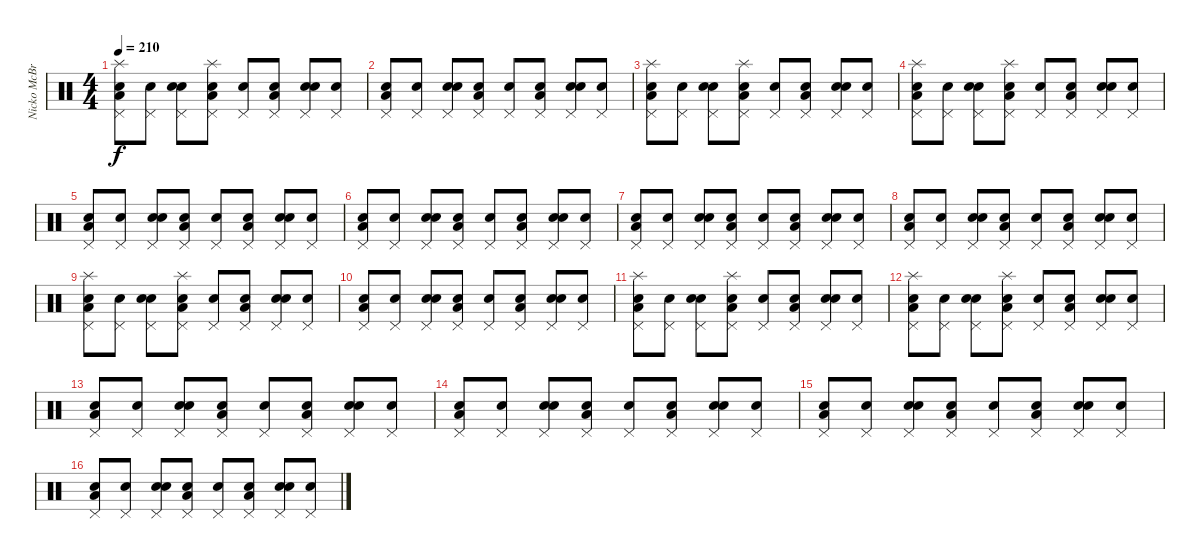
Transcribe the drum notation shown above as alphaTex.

\track ("Nicko McBrain" "Nicko McBr") {instrument percussion}
\staff {score}
\articulation defaults
\ts (4 4)
\tempo 210
\clef neutral
\ks c
("Snare (hit)" "Low Floor Tom (hit)" "Pedal Hi-Hat (hit)" "Splash (hit)").8{dy f} ("Snare (hit)" "Pedal Hi-Hat (hit)").8 ("Snare (hit)" "Electric Snare (hit)" "Pedal Hi-Hat (hit)").8 ("Snare (hit)" "Low Floor Tom (hit)" "Pedal Hi-Hat (hit)" "Splash (hit)").8 ("Snare (hit)" "Pedal Hi-Hat (hit)").8 ("Snare (hit)" "Low Floor Tom (hit)" "Pedal Hi-Hat (hit)").8 ("Snare (hit)" "Electric Snare (hit)" "Pedal Hi-Hat (hit)").8 ("Snare (hit)" "Pedal Hi-Hat (hit)").8 |
("Snare (hit)" "Low Floor Tom (hit)" "Pedal Hi-Hat (hit)").8 ("Snare (hit)" "Pedal Hi-Hat (hit)").8 ("Snare (hit)" "Electric Snare (hit)" "Pedal Hi-Hat (hit)").8 ("Snare (hit)" "Low Floor Tom (hit)" "Pedal Hi-Hat (hit)").8 ("Snare (hit)" "Pedal Hi-Hat (hit)").8 ("Snare (hit)" "Low Floor Tom (hit)" "Pedal Hi-Hat (hit)").8 ("Snare (hit)" "Electric Snare (hit)" "Pedal Hi-Hat (hit)").8 ("Snare (hit)" "Pedal Hi-Hat (hit)").8 |
("Snare (hit)" "Low Floor Tom (hit)" "Pedal Hi-Hat (hit)" "Splash (hit)").8 ("Snare (hit)" "Pedal Hi-Hat (hit)").8 ("Snare (hit)" "Electric Snare (hit)" "Pedal Hi-Hat (hit)").8 ("Snare (hit)" "Low Floor Tom (hit)" "Pedal Hi-Hat (hit)" "Splash (hit)").8 ("Snare (hit)" "Pedal Hi-Hat (hit)").8 ("Snare (hit)" "Low Floor Tom (hit)" "Pedal Hi-Hat (hit)").8 ("Snare (hit)" "Electric Snare (hit)" "Pedal Hi-Hat (hit)").8 ("Snare (hit)" "Pedal Hi-Hat (hit)").8 |
("Snare (hit)" "Low Floor Tom (hit)" "Pedal Hi-Hat (hit)" "Splash (hit)").8 ("Snare (hit)" "Pedal Hi-Hat (hit)").8 ("Snare (hit)" "Electric Snare (hit)" "Pedal Hi-Hat (hit)").8 ("Snare (hit)" "Low Floor Tom (hit)" "Pedal Hi-Hat (hit)" "Splash (hit)").8 ("Snare (hit)" "Pedal Hi-Hat (hit)").8 ("Snare (hit)" "Low Floor Tom (hit)" "Pedal Hi-Hat (hit)").8 ("Snare (hit)" "Electric Snare (hit)" "Pedal Hi-Hat (hit)").8 ("Snare (hit)" "Pedal Hi-Hat (hit)").8 |
("Snare (hit)" "Low Floor Tom (hit)" "Pedal Hi-Hat (hit)").8 ("Snare (hit)" "Pedal Hi-Hat (hit)").8 ("Snare (hit)" "Electric Snare (hit)" "Pedal Hi-Hat (hit)").8 ("Snare (hit)" "Low Floor Tom (hit)" "Pedal Hi-Hat (hit)").8 ("Snare (hit)" "Pedal Hi-Hat (hit)").8 ("Snare (hit)" "Low Floor Tom (hit)" "Pedal Hi-Hat (hit)").8 ("Snare (hit)" "Electric Snare (hit)" "Pedal Hi-Hat (hit)").8 ("Snare (hit)" "Pedal Hi-Hat (hit)").8 |
("Snare (hit)" "Low Floor Tom (hit)" "Pedal Hi-Hat (hit)").8 ("Snare (hit)" "Pedal Hi-Hat (hit)").8 ("Snare (hit)" "Electric Snare (hit)" "Pedal Hi-Hat (hit)").8 ("Snare (hit)" "Low Floor Tom (hit)" "Pedal Hi-Hat (hit)").8 ("Snare (hit)" "Pedal Hi-Hat (hit)").8 ("Snare (hit)" "Low Floor Tom (hit)" "Pedal Hi-Hat (hit)").8 ("Snare (hit)" "Electric Snare (hit)" "Pedal Hi-Hat (hit)").8 ("Snare (hit)" "Pedal Hi-Hat (hit)").8 |
("Snare (hit)" "Low Floor Tom (hit)" "Pedal Hi-Hat (hit)").8 ("Snare (hit)" "Pedal Hi-Hat (hit)").8 ("Snare (hit)" "Electric Snare (hit)" "Pedal Hi-Hat (hit)").8 ("Snare (hit)" "Low Floor Tom (hit)" "Pedal Hi-Hat (hit)").8 ("Snare (hit)" "Pedal Hi-Hat (hit)").8 ("Snare (hit)" "Low Floor Tom (hit)" "Pedal Hi-Hat (hit)").8 ("Snare (hit)" "Electric Snare (hit)" "Pedal Hi-Hat (hit)").8 ("Snare (hit)" "Pedal Hi-Hat (hit)").8 |
("Snare (hit)" "Low Floor Tom (hit)" "Pedal Hi-Hat (hit)").8 ("Snare (hit)" "Pedal Hi-Hat (hit)").8 ("Snare (hit)" "Electric Snare (hit)" "Pedal Hi-Hat (hit)").8 ("Snare (hit)" "Low Floor Tom (hit)" "Pedal Hi-Hat (hit)").8 ("Snare (hit)" "Pedal Hi-Hat (hit)").8 ("Snare (hit)" "Low Floor Tom (hit)" "Pedal Hi-Hat (hit)").8 ("Snare (hit)" "Electric Snare (hit)" "Pedal Hi-Hat (hit)").8 ("Snare (hit)" "Pedal Hi-Hat (hit)").8 |
("Snare (hit)" "Low Floor Tom (hit)" "Pedal Hi-Hat (hit)" "Splash (hit)").8 ("Snare (hit)" "Pedal Hi-Hat (hit)").8 ("Snare (hit)" "Electric Snare (hit)" "Pedal Hi-Hat (hit)").8 ("Snare (hit)" "Low Floor Tom (hit)" "Pedal Hi-Hat (hit)" "Splash (hit)").8 ("Snare (hit)" "Pedal Hi-Hat (hit)").8 ("Snare (hit)" "Low Floor Tom (hit)" "Pedal Hi-Hat (hit)").8 ("Snare (hit)" "Electric Snare (hit)" "Pedal Hi-Hat (hit)").8 ("Snare (hit)" "Pedal Hi-Hat (hit)").8 |
("Snare (hit)" "Low Floor Tom (hit)" "Pedal Hi-Hat (hit)").8 ("Snare (hit)" "Pedal Hi-Hat (hit)").8 ("Snare (hit)" "Electric Snare (hit)" "Pedal Hi-Hat (hit)").8 ("Snare (hit)" "Low Floor Tom (hit)" "Pedal Hi-Hat (hit)").8 ("Snare (hit)" "Pedal Hi-Hat (hit)").8 ("Snare (hit)" "Low Floor Tom (hit)" "Pedal Hi-Hat (hit)").8 ("Snare (hit)" "Electric Snare (hit)" "Pedal Hi-Hat (hit)").8 ("Snare (hit)" "Pedal Hi-Hat (hit)").8 |
("Snare (hit)" "Low Floor Tom (hit)" "Pedal Hi-Hat (hit)" "Splash (hit)").8 ("Snare (hit)" "Pedal Hi-Hat (hit)").8 ("Snare (hit)" "Electric Snare (hit)" "Pedal Hi-Hat (hit)").8 ("Snare (hit)" "Low Floor Tom (hit)" "Pedal Hi-Hat (hit)" "Splash (hit)").8 ("Snare (hit)" "Pedal Hi-Hat (hit)").8 ("Snare (hit)" "Low Floor Tom (hit)" "Pedal Hi-Hat (hit)").8 ("Snare (hit)" "Electric Snare (hit)" "Pedal Hi-Hat (hit)").8 ("Snare (hit)" "Pedal Hi-Hat (hit)").8 |
("Snare (hit)" "Low Floor Tom (hit)" "Pedal Hi-Hat (hit)" "Splash (hit)").8 ("Snare (hit)" "Pedal Hi-Hat (hit)").8 ("Snare (hit)" "Electric Snare (hit)" "Pedal Hi-Hat (hit)").8 ("Snare (hit)" "Low Floor Tom (hit)" "Pedal Hi-Hat (hit)" "Splash (hit)").8 ("Snare (hit)" "Pedal Hi-Hat (hit)").8 ("Snare (hit)" "Low Floor Tom (hit)" "Pedal Hi-Hat (hit)").8 ("Snare (hit)" "Electric Snare (hit)" "Pedal Hi-Hat (hit)").8 ("Snare (hit)" "Pedal Hi-Hat (hit)").8 |
("Snare (hit)" "Low Floor Tom (hit)" "Pedal Hi-Hat (hit)").8 ("Snare (hit)" "Pedal Hi-Hat (hit)").8 ("Snare (hit)" "Electric Snare (hit)" "Pedal Hi-Hat (hit)").8 ("Snare (hit)" "Low Floor Tom (hit)" "Pedal Hi-Hat (hit)").8 ("Snare (hit)" "Pedal Hi-Hat (hit)").8 ("Snare (hit)" "Low Floor Tom (hit)" "Pedal Hi-Hat (hit)").8 ("Snare (hit)" "Electric Snare (hit)" "Pedal Hi-Hat (hit)").8 ("Snare (hit)" "Pedal Hi-Hat (hit)").8 |
("Snare (hit)" "Low Floor Tom (hit)" "Pedal Hi-Hat (hit)").8 ("Snare (hit)" "Pedal Hi-Hat (hit)").8 ("Snare (hit)" "Electric Snare (hit)" "Pedal Hi-Hat (hit)").8 ("Snare (hit)" "Low Floor Tom (hit)" "Pedal Hi-Hat (hit)").8 ("Snare (hit)" "Pedal Hi-Hat (hit)").8 ("Snare (hit)" "Low Floor Tom (hit)" "Pedal Hi-Hat (hit)").8 ("Snare (hit)" "Electric Snare (hit)" "Pedal Hi-Hat (hit)").8 ("Snare (hit)" "Pedal Hi-Hat (hit)").8 |
("Snare (hit)" "Low Floor Tom (hit)" "Pedal Hi-Hat (hit)").8 ("Snare (hit)" "Pedal Hi-Hat (hit)").8 ("Snare (hit)" "Electric Snare (hit)" "Pedal Hi-Hat (hit)").8 ("Snare (hit)" "Low Floor Tom (hit)" "Pedal Hi-Hat (hit)").8 ("Snare (hit)" "Pedal Hi-Hat (hit)").8 ("Snare (hit)" "Low Floor Tom (hit)" "Pedal Hi-Hat (hit)").8 ("Snare (hit)" "Electric Snare (hit)" "Pedal Hi-Hat (hit)").8 ("Snare (hit)" "Pedal Hi-Hat (hit)").8 |
("Snare (hit)" "Low Floor Tom (hit)" "Pedal Hi-Hat (hit)").8 ("Snare (hit)" "Pedal Hi-Hat (hit)").8 ("Snare (hit)" "Electric Snare (hit)" "Pedal Hi-Hat (hit)").8 ("Snare (hit)" "Low Floor Tom (hit)" "Pedal Hi-Hat (hit)").8 ("Snare (hit)" "Pedal Hi-Hat (hit)").8 ("Snare (hit)" "Low Floor Tom (hit)" "Pedal Hi-Hat (hit)").8 ("Snare (hit)" "Electric Snare (hit)" "Pedal Hi-Hat (hit)").8 ("Snare (hit)" "Pedal Hi-Hat (hit)").8
